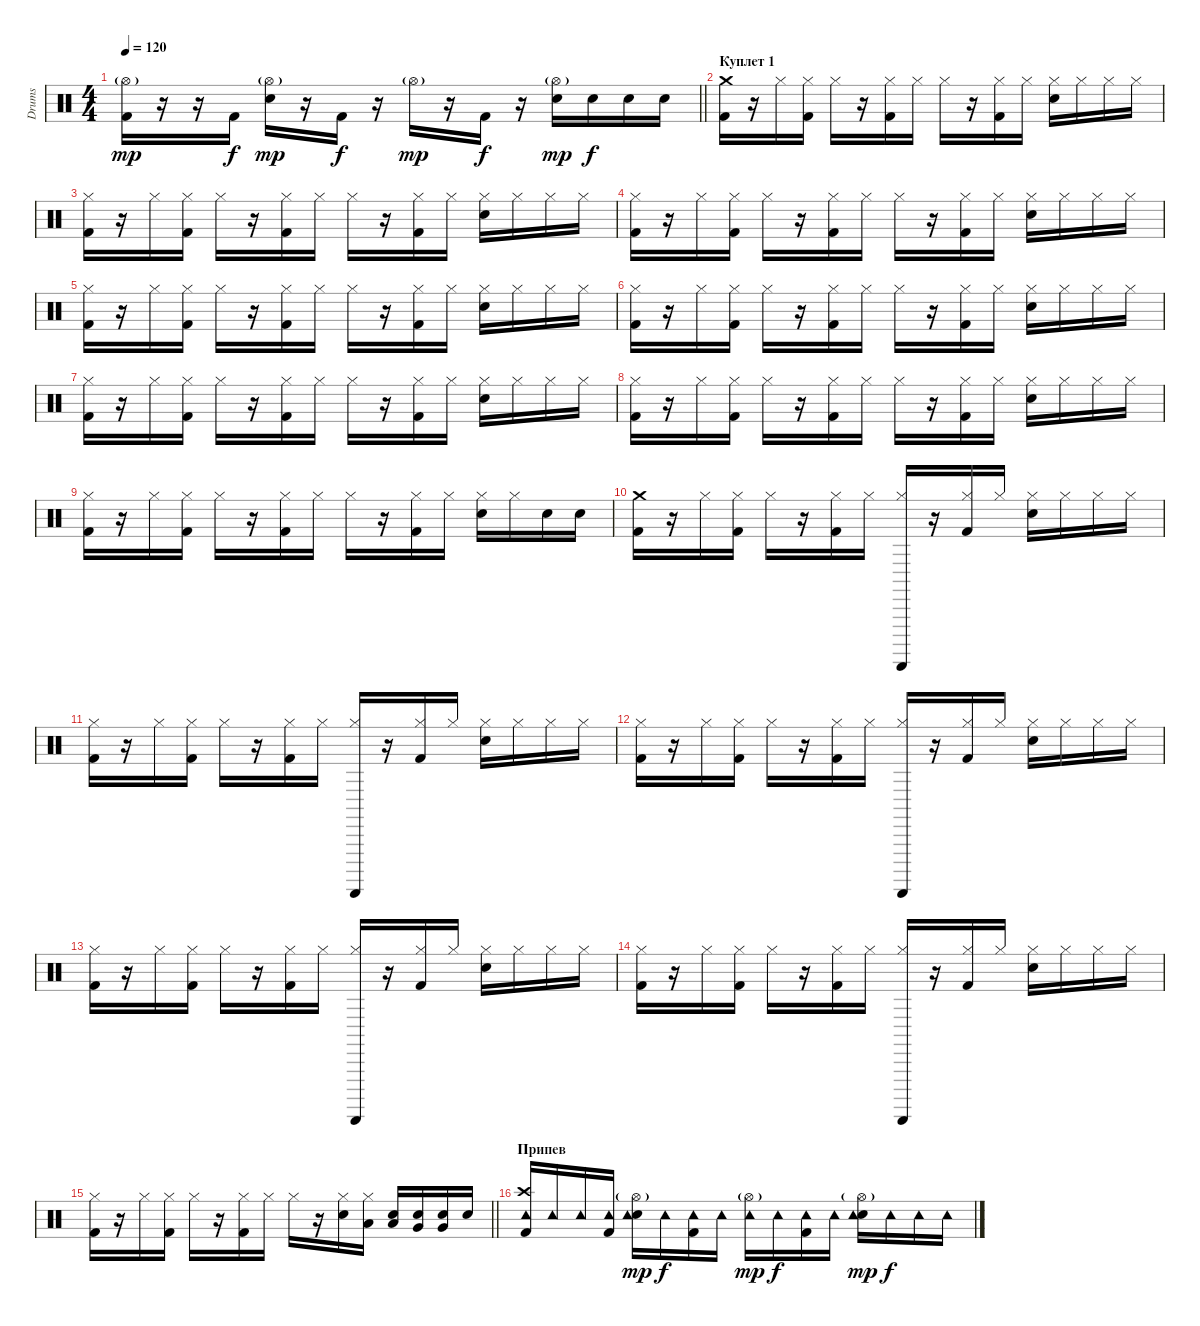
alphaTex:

\track ("Drums" "Drums") {instrument percussion}
\staff {score}
\articulation defaults
\ts (4 4)
\tempo 120
\clef neutral
\barLineRight lightlight
\ks c
("Hi-Hat (open)"{g} "Kick (hit) 2").16{dy mp} r.16 r.16 "Kick (hit) 2".16{dy f} ("Hi-Hat (open)"{g} "Electric Snare (hit)").16{dy mp} r.16 "Kick (hit) 2".16{dy f} r.16 "Hi-Hat (open)"{g}.16{dy mp} r.16 "Kick (hit) 2".16{dy f} r.16 ("Hi-Hat (open)"{g} "Electric Snare (hit)").16{dy mp} "Electric Snare (hit)".16{dy f} "Electric Snare (hit)".16 "Electric Snare (hit)".16 |
\section ("" "Куплет 1")
("Crash medium (hit)" "Kick (hit) 2").16 r.16 "Hi-Hat (closed)".16 ("Hi-Hat (closed)" "Kick (hit) 2").16 "Hi-Hat (closed)".16 r.16 ("Hi-Hat (closed)" "Kick (hit) 2").16 "Hi-Hat (closed)".16 "Hi-Hat (closed)".16 r.16 ("Hi-Hat (closed)" "Kick (hit) 2").16 "Hi-Hat (closed)".16 ("Hi-Hat (closed)" "Electric Snare (hit)").16 "Hi-Hat (closed)".16 "Hi-Hat (closed)".16 "Hi-Hat (closed)".16 |
("Hi-Hat (closed)" "Kick (hit) 2").16 r.16 "Hi-Hat (closed)".16 ("Hi-Hat (closed)" "Kick (hit) 2").16 "Hi-Hat (closed)".16 r.16 ("Hi-Hat (closed)" "Kick (hit) 2").16 "Hi-Hat (closed)".16 "Hi-Hat (closed)".16 r.16 ("Hi-Hat (closed)" "Kick (hit) 2").16 "Hi-Hat (closed)".16 ("Hi-Hat (closed)" "Electric Snare (hit)").16 "Hi-Hat (closed)".16 "Hi-Hat (closed)".16 "Hi-Hat (closed)".16 |
("Hi-Hat (closed)" "Kick (hit) 2").16 r.16 "Hi-Hat (closed)".16 ("Hi-Hat (closed)" "Kick (hit) 2").16 "Hi-Hat (closed)".16 r.16 ("Hi-Hat (closed)" "Kick (hit) 2").16 "Hi-Hat (closed)".16 "Hi-Hat (closed)".16 r.16 ("Hi-Hat (closed)" "Kick (hit) 2").16 "Hi-Hat (closed)".16 ("Hi-Hat (closed)" "Electric Snare (hit)").16 "Hi-Hat (closed)".16 "Hi-Hat (closed)".16 "Hi-Hat (closed)".16 |
("Hi-Hat (closed)" "Kick (hit) 2").16 r.16 "Hi-Hat (closed)".16 ("Hi-Hat (closed)" "Kick (hit) 2").16 "Hi-Hat (closed)".16 r.16 ("Hi-Hat (closed)" "Kick (hit) 2").16 "Hi-Hat (closed)".16 "Hi-Hat (closed)".16 r.16 ("Hi-Hat (closed)" "Kick (hit) 2").16 "Hi-Hat (closed)".16 ("Hi-Hat (closed)" "Electric Snare (hit)").16 "Hi-Hat (closed)".16 "Hi-Hat (closed)".16 "Hi-Hat (closed)".16 |
("Hi-Hat (closed)" "Kick (hit) 2").16 r.16 "Hi-Hat (closed)".16 ("Hi-Hat (closed)" "Kick (hit) 2").16 "Hi-Hat (closed)".16 r.16 ("Hi-Hat (closed)" "Kick (hit) 2").16 "Hi-Hat (closed)".16 "Hi-Hat (closed)".16 r.16 ("Hi-Hat (closed)" "Kick (hit) 2").16 "Hi-Hat (closed)".16 ("Hi-Hat (closed)" "Electric Snare (hit)").16 "Hi-Hat (closed)".16 "Hi-Hat (closed)".16 "Hi-Hat (closed)".16 |
("Hi-Hat (closed)" "Kick (hit) 2").16 r.16 "Hi-Hat (closed)".16 ("Hi-Hat (closed)" "Kick (hit) 2").16 "Hi-Hat (closed)".16 r.16 ("Hi-Hat (closed)" "Kick (hit) 2").16 "Hi-Hat (closed)".16 "Hi-Hat (closed)".16 r.16 ("Hi-Hat (closed)" "Kick (hit) 2").16 "Hi-Hat (closed)".16 ("Hi-Hat (closed)" "Electric Snare (hit)").16 "Hi-Hat (closed)".16 "Hi-Hat (closed)".16 "Hi-Hat (closed)".16 |
("Hi-Hat (closed)" "Kick (hit) 2").16 r.16 "Hi-Hat (closed)".16 ("Hi-Hat (closed)" "Kick (hit) 2").16 "Hi-Hat (closed)".16 r.16 ("Hi-Hat (closed)" "Kick (hit) 2").16 "Hi-Hat (closed)".16 "Hi-Hat (closed)".16 r.16 ("Hi-Hat (closed)" "Kick (hit) 2").16 "Hi-Hat (closed)".16 ("Hi-Hat (closed)" "Electric Snare (hit)").16 "Hi-Hat (closed)".16 "Hi-Hat (closed)".16 "Hi-Hat (closed)".16 |
("Hi-Hat (closed)" "Kick (hit) 2").16 r.16 "Hi-Hat (closed)".16 ("Hi-Hat (closed)" "Kick (hit) 2").16 "Hi-Hat (closed)".16 r.16 ("Hi-Hat (closed)" "Kick (hit) 2").16 "Hi-Hat (closed)".16 "Hi-Hat (closed)".16 r.16 ("Hi-Hat (closed)" "Kick (hit) 2").16 "Hi-Hat (closed)".16 ("Hi-Hat (closed)" "Electric Snare (hit)").16 "Hi-Hat (closed)".16 "Electric Snare (hit)".16 "Electric Snare (hit)".16 |
("Crash medium (hit)" "Kick (hit) 2").16 r.16 "Hi-Hat (closed)".16 ("Hi-Hat (closed)" "Kick (hit) 2").16 "Hi-Hat (closed)".16 r.16 ("Hi-Hat (closed)" "Kick (hit) 2").16 "Hi-Hat (closed)".16 ("Hi-Hat (closed)" "Guiro (scrap-return)").16 r.16 ("Hi-Hat (closed)" "Kick (hit) 2").16 "Hi-Hat (closed)".16 ("Hi-Hat (closed)" "Electric Snare (hit)").16 "Hi-Hat (closed)".16 "Hi-Hat (closed)".16 "Hi-Hat (closed)".16 |
("Hi-Hat (closed)" "Kick (hit) 2").16 r.16 "Hi-Hat (closed)".16 ("Hi-Hat (closed)" "Kick (hit) 2").16 "Hi-Hat (closed)".16 r.16 ("Hi-Hat (closed)" "Kick (hit) 2").16 "Hi-Hat (closed)".16 ("Hi-Hat (closed)" "Guiro (scrap-return)").16 r.16 ("Hi-Hat (closed)" "Kick (hit) 2").16 "Hi-Hat (closed)".16 ("Hi-Hat (closed)" "Electric Snare (hit)").16 "Hi-Hat (closed)".16 "Hi-Hat (closed)".16 "Hi-Hat (closed)".16 |
("Hi-Hat (closed)" "Kick (hit) 2").16 r.16 "Hi-Hat (closed)".16 ("Hi-Hat (closed)" "Kick (hit) 2").16 "Hi-Hat (closed)".16 r.16 ("Hi-Hat (closed)" "Kick (hit) 2").16 "Hi-Hat (closed)".16 ("Hi-Hat (closed)" "Guiro (scrap-return)").16 r.16 ("Hi-Hat (closed)" "Kick (hit) 2").16 "Hi-Hat (closed)".16 ("Hi-Hat (closed)" "Electric Snare (hit)").16 "Hi-Hat (closed)".16 "Hi-Hat (closed)".16 "Hi-Hat (closed)".16 |
("Hi-Hat (closed)" "Kick (hit) 2").16 r.16 "Hi-Hat (closed)".16 ("Hi-Hat (closed)" "Kick (hit) 2").16 "Hi-Hat (closed)".16 r.16 ("Hi-Hat (closed)" "Kick (hit) 2").16 "Hi-Hat (closed)".16 ("Hi-Hat (closed)" "Guiro (scrap-return)").16 r.16 ("Hi-Hat (closed)" "Kick (hit) 2").16 "Hi-Hat (closed)".16 ("Hi-Hat (closed)" "Electric Snare (hit)").16 "Hi-Hat (closed)".16 "Hi-Hat (closed)".16 "Hi-Hat (closed)".16 |
("Hi-Hat (closed)" "Kick (hit) 2").16 r.16 "Hi-Hat (closed)".16 ("Hi-Hat (closed)" "Kick (hit) 2").16 "Hi-Hat (closed)".16 r.16 ("Hi-Hat (closed)" "Kick (hit) 2").16 "Hi-Hat (closed)".16 ("Hi-Hat (closed)" "Guiro (scrap-return)").16 r.16 ("Hi-Hat (closed)" "Kick (hit) 2").16 "Hi-Hat (closed)".16 ("Hi-Hat (closed)" "Electric Snare (hit)").16 "Hi-Hat (closed)".16 "Hi-Hat (closed)".16 "Hi-Hat (closed)".16 |
\barLineRight lightlight
("Hi-Hat (closed)" "Kick (hit) 2").16 r.16 "Hi-Hat (closed)".16 ("Hi-Hat (closed)" "Kick (hit) 2").16 "Hi-Hat (closed)".16 r.16 ("Hi-Hat (closed)" "Kick (hit) 2").16 "Hi-Hat (closed)".16 "Hi-Hat (closed)".16 r.16 ("Hi-Hat (closed)" "Electric Snare (hit)").16 ("Hi-Hat (closed)" "Low Tom (hit)").16 ("Electric Snare (hit)" "Low Tom (hit)").16 ("Electric Snare (hit)" "Very Low Tom (hit)").16 ("Electric Snare (hit)" "Very Low Tom (hit)").16 "Electric Snare (hit)".16 |
\section ("" "Припев")
("Crash high (hit)" "Kick (hit) 2" "Tambourine (hit)").16 "Tambourine (hit)".16 "Tambourine (hit)".16 ("Kick (hit) 2" "Tambourine (hit)").16 ("Hi-Hat (open)"{g} "Electric Snare (hit)" "Tambourine (hit)").16{dy mp} "Tambourine (hit)".16{dy f} ("Kick (hit) 2" "Tambourine (hit)").16 "Tambourine (hit)".16 ("Hi-Hat (open)"{g} "Tambourine (hit)").16{dy mp} "Tambourine (hit)".16{dy f} ("Kick (hit) 2" "Tambourine (hit)").16 "Tambourine (hit)".16 ("Hi-Hat (open)"{g} "Electric Snare (hit)" "Tambourine (hit)").16{dy mp} "Tambourine (hit)".16{dy f} "Tambourine (hit)".16 "Tambourine (hit)".16
